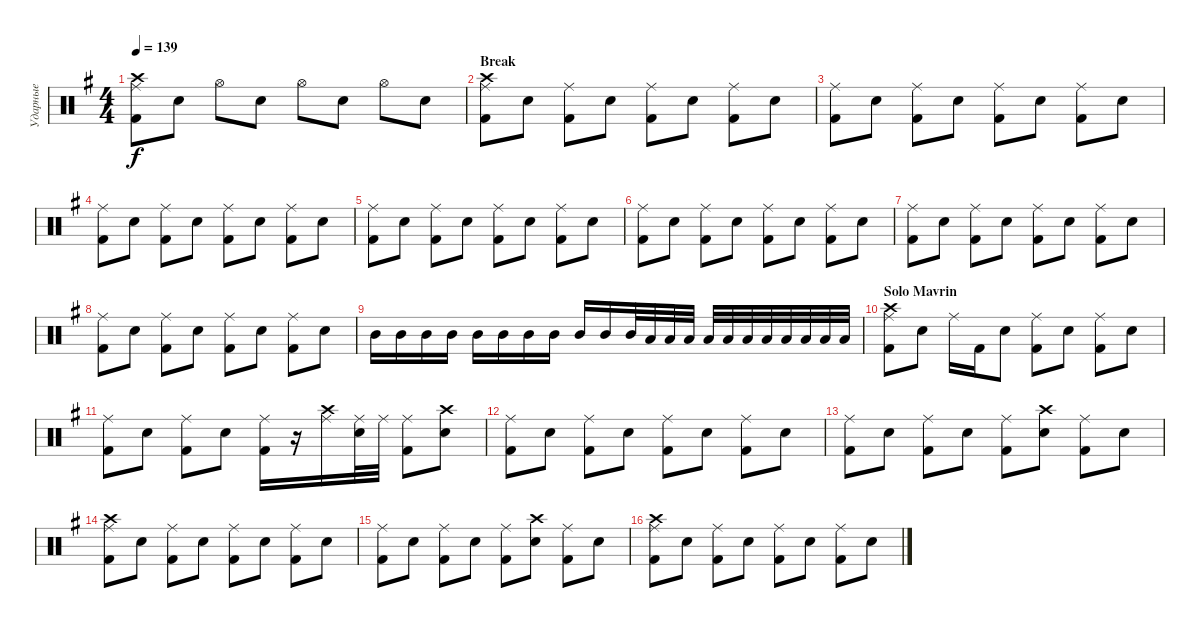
\track ("Ударные" "Ударные") {instrument percussion}
\staff {score}
\articulation defaults
\ts (4 4)
\tempo 139
\clef neutral
\ks eminor
("Crash high (hit)" "Ride (middle)" "Kick (hit) 2").8{dy f} "Snare (hit) 2".8 "Hi-Hat (open)".8 "Snare (hit) 2".8 "Hi-Hat (open)".8 "Snare (hit) 2".8 "Hi-Hat (open)".8 "Snare (hit) 2".8 |
\section ("" "Break")
("Crash high (hit)" "Ride (middle)" "Kick (hit) 2").8 "Snare (hit) 2".8 ("Ride (middle)" "Kick (hit) 2").8 "Snare (hit) 2".8 ("Ride (middle)" "Kick (hit) 2").8 "Snare (hit) 2".8 ("Ride (middle)" "Kick (hit) 2").8 "Snare (hit) 2".8 |
("Ride (middle)" "Kick (hit) 2").8 "Snare (hit) 2".8 ("Ride (middle)" "Kick (hit) 2").8 "Snare (hit) 2".8 ("Ride (middle)" "Kick (hit) 2").8 "Snare (hit) 2".8 ("Ride (middle)" "Kick (hit) 2").8 "Snare (hit) 2".8 |
("Ride (middle)" "Kick (hit) 2").8 "Snare (hit) 2".8 ("Ride (middle)" "Kick (hit) 2").8 "Snare (hit) 2".8 ("Ride (middle)" "Kick (hit) 2").8 "Snare (hit) 2".8 ("Ride (middle)" "Kick (hit) 2").8 "Snare (hit) 2".8 |
("Ride (middle)" "Kick (hit) 2").8 "Snare (hit) 2".8 ("Ride (middle)" "Kick (hit) 2").8 "Snare (hit) 2".8 ("Ride (middle)" "Kick (hit) 2").8 "Snare (hit) 2".8 ("Ride (middle)" "Kick (hit) 2").8 "Snare (hit) 2".8 |
("Ride (middle)" "Kick (hit) 2").8 "Snare (hit) 2".8 ("Ride (middle)" "Kick (hit) 2").8 "Snare (hit) 2".8 ("Ride (middle)" "Kick (hit) 2").8 "Snare (hit) 2".8 ("Ride (middle)" "Kick (hit) 2").8 "Snare (hit) 2".8 |
("Ride (middle)" "Kick (hit) 2").8 "Snare (hit) 2".8 ("Ride (middle)" "Kick (hit) 2").8 "Snare (hit) 2".8 ("Ride (middle)" "Kick (hit) 2").8 "Snare (hit) 2".8 ("Ride (middle)" "Kick (hit) 2").8 "Snare (hit) 2".8 |
("Ride (middle)" "Kick (hit) 2").8 "Snare (hit) 2".8 ("Ride (middle)" "Kick (hit) 2").8 "Snare (hit) 2".8 ("Ride (middle)" "Kick (hit) 2").8 "Snare (hit) 2".8 ("Ride (middle)" "Kick (hit) 2").8 "Snare (hit) 2".8 |
"Mid Tom (hit)".16 "Mid Tom (hit)".16 "Mid Tom (hit)".16 "Mid Tom (hit)".16 "Mid Tom (hit)".16 "Mid Tom (hit)".16 "Mid Tom (hit)".16 "Mid Tom (hit)".16 "Mid Tom (hit)".16 "Mid Tom (hit)".16 "Mid Tom (hit)".32 "Low Tom (hit)".32 "Low Tom (hit)".32 "Low Tom (hit)".32 "Low Tom (hit)".32 "Low Tom (hit)".32 "Low Tom (hit)".32 "Low Tom (hit)".32 "Low Tom (hit)".32 "Low Tom (hit)".32 "Low Tom (hit)".32 "Low Tom (hit)".32 |
\section ("" "Solo Mavrin")
("Crash high (hit)" "Ride (middle)" "Kick (hit) 2").8 "Snare (hit) 2".8 "Ride (middle)".16 "Kick (hit) 2".16 "Snare (hit) 2".8 ("Ride (middle)" "Kick (hit) 2").8 "Snare (hit) 2".8 ("Ride (middle)" "Kick (hit) 2").8 "Snare (hit) 2".8 |
("Ride (middle)" "Kick (hit) 2").8 "Snare (hit) 2".8 ("Ride (middle)" "Kick (hit) 2").8 "Snare (hit) 2".8 ("Ride (middle)" "Kick (hit) 2").16 r.16 ("Crash high (hit)" "Ride (middle)").16 ("Ride (middle)" "Snare (hit) 2").32 "Ride (middle)".32 ("Ride (middle)" "Kick (hit) 2").8 ("Crash high (hit)" "Snare (hit) 2").8 |
("Ride (middle)" "Kick (hit) 2").8 "Snare (hit) 2".8 ("Ride (middle)" "Kick (hit) 2").8 "Snare (hit) 2".8 ("Ride (middle)" "Kick (hit) 2").8 "Snare (hit) 2".8 ("Ride (middle)" "Kick (hit) 2").8 "Snare (hit) 2".8 |
("Ride (middle)" "Kick (hit) 2").8 "Snare (hit) 2".8 ("Ride (middle)" "Kick (hit) 2").8 "Snare (hit) 2".8 ("Ride (middle)" "Kick (hit) 2").8 ("Crash high (hit)" "Snare (hit) 2").8 ("Ride (middle)" "Kick (hit) 2").8 "Snare (hit) 2".8 |
("Crash high (hit)" "Ride (middle)" "Kick (hit) 2").8 "Snare (hit) 2".8 ("Ride (middle)" "Kick (hit) 2").8 "Snare (hit) 2".8 ("Ride (middle)" "Kick (hit) 2").8 "Snare (hit) 2".8 ("Ride (middle)" "Kick (hit) 2").8 "Snare (hit) 2".8 |
("Ride (middle)" "Kick (hit) 2").8 "Snare (hit) 2".8 ("Ride (middle)" "Kick (hit) 2").8 "Snare (hit) 2".8 ("Ride (middle)" "Kick (hit) 2").8 ("Crash high (hit)" "Snare (hit) 2").8 ("Ride (middle)" "Kick (hit) 2").8 "Snare (hit) 2".8 |
("Crash high (hit)" "Ride (middle)" "Kick (hit) 2").8 "Snare (hit) 2".8 ("Ride (middle)" "Kick (hit) 2").8 "Snare (hit) 2".8 ("Ride (middle)" "Kick (hit) 2").8 "Snare (hit) 2".8 ("Ride (middle)" "Kick (hit) 2").8 "Snare (hit) 2".8
